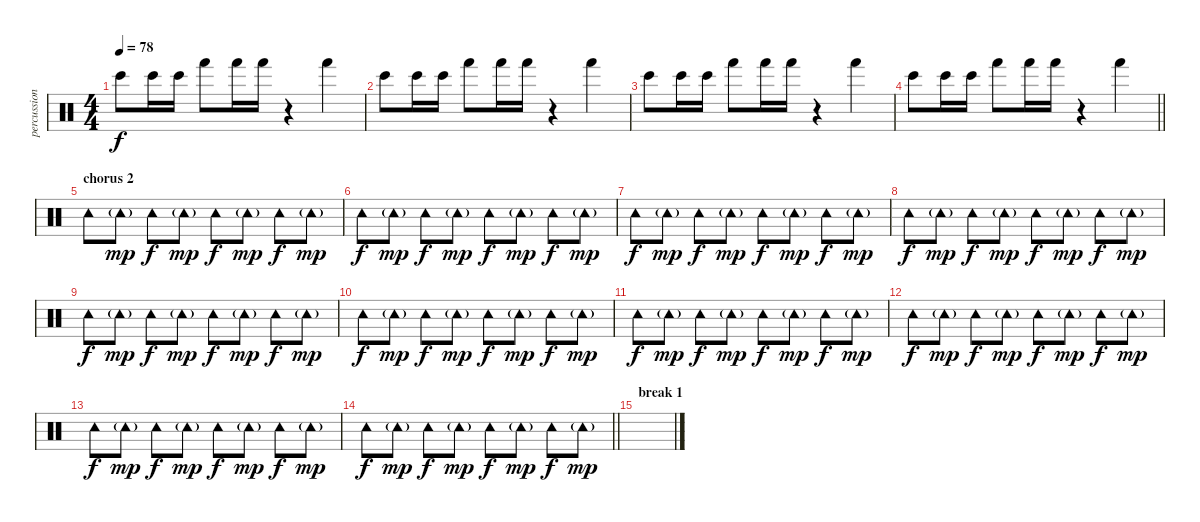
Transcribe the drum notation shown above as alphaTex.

\track ("percussion" "percussion") {instrument percussion}
\staff {score}
\articulation defaults
\ts (4 4)
\tempo 78
\clef neutral
\ks c "Bongo High (hit)".8{dy f} "Bongo High (hit)".16 "Bongo High (hit)".16 "Hand (hit)".8 "Hand (hit)".16 "Hand (hit)".16
r.4 "Hand (hit)".4 |
"Bongo High (hit)".8 "Bongo High (hit)".16 "Bongo High (hit)".16 "Hand (hit)".8 "Hand (hit)".16 "Hand (hit)".16 r.4 "Hand (hit)".4 |
"Bongo High (hit)".8 "Bongo High (hit)".16 "Bongo High (hit)".16 "Hand (hit)".8 "Hand (hit)".16 "Hand (hit)".16 r.4 "Hand (hit)".4 |
\barLineRight lightlight "Bongo High (hit)".8 "Bongo High (hit)".16 "Bongo High (hit)".16 "Hand (hit)".8 "Hand (hit)".16 "Hand (hit)".16
r.4 "Hand (hit)".4 |
\section ("" "chorus 2")
"Tambourine (hit)".8 "Tambourine (hit)"{g}.8{dy mp} "Tambourine (hit)".8{dy f} "Tambourine (hit)"{g}.8{dy mp} "Tambourine (hit)".8{dy f} "Tambourine (hit)"{g}.8{dy mp} "Tambourine (hit)".8{dy f} "Tambourine (hit)"{g}.8{dy mp} |
"Tambourine (hit)".8{dy f} "Tambourine (hit)"{g}.8{dy mp} "Tambourine (hit)".8{dy f} "Tambourine (hit)"{g}.8{dy mp} "Tambourine (hit)".8{dy f} "Tambourine (hit)"{g}.8{dy mp} "Tambourine (hit)".8{dy f} "Tambourine (hit)"{g}.8{dy mp} |
"Tambourine (hit)".8{dy f} "Tambourine (hit)"{g}.8{dy mp} "Tambourine (hit)".8{dy f} "Tambourine (hit)"{g}.8{dy mp} "Tambourine (hit)".8{dy f} "Tambourine (hit)"{g}.8{dy mp} "Tambourine (hit)".8{dy f} "Tambourine (hit)"{g}.8{dy mp} |
"Tambourine (hit)".8{dy f} "Tambourine (hit)"{g}.8{dy mp} "Tambourine (hit)".8{dy f} "Tambourine (hit)"{g}.8{dy mp} "Tambourine (hit)".8{dy f} "Tambourine (hit)"{g}.8{dy mp} "Tambourine (hit)".8{dy f} "Tambourine (hit)"{g}.8{dy mp} |
"Tambourine (hit)".8{dy f} "Tambourine (hit)"{g}.8{dy mp} "Tambourine (hit)".8{dy f} "Tambourine (hit)"{g}.8{dy mp} "Tambourine (hit)".8{dy f} "Tambourine (hit)"{g}.8{dy mp} "Tambourine (hit)".8{dy f} "Tambourine (hit)"{g}.8{dy mp} |
"Tambourine (hit)".8{dy f} "Tambourine (hit)"{g}.8{dy mp} "Tambourine (hit)".8{dy f} "Tambourine (hit)"{g}.8{dy mp} "Tambourine (hit)".8{dy f} "Tambourine (hit)"{g}.8{dy mp} "Tambourine (hit)".8{dy f} "Tambourine (hit)"{g}.8{dy mp} |
"Tambourine (hit)".8{dy f} "Tambourine (hit)"{g}.8{dy mp} "Tambourine (hit)".8{dy f} "Tambourine (hit)"{g}.8{dy mp} "Tambourine (hit)".8{dy f} "Tambourine (hit)"{g}.8{dy mp} "Tambourine (hit)".8{dy f} "Tambourine (hit)"{g}.8{dy mp} |
"Tambourine (hit)".8{dy f} "Tambourine (hit)"{g}.8{dy mp} "Tambourine (hit)".8{dy f} "Tambourine (hit)"{g}.8{dy mp} "Tambourine (hit)".8{dy f} "Tambourine (hit)"{g}.8{dy mp} "Tambourine (hit)".8{dy f} "Tambourine (hit)"{g}.8{dy mp} |
"Tambourine (hit)".8{dy f} "Tambourine (hit)"{g}.8{dy mp} "Tambourine (hit)".8{dy f} "Tambourine (hit)"{g}.8{dy mp} "Tambourine (hit)".8{dy f} "Tambourine (hit)"{g}.8{dy mp} "Tambourine (hit)".8{dy f} "Tambourine (hit)"{g}.8{dy mp} |
\barLineRight lightlight "Tambourine (hit)".8{dy f} "Tambourine (hit)"{g}.8{dy mp} "Tambourine (hit)".8{dy f} "Tambourine (hit)"{g}.8{dy mp} "Tambourine (hit)".8{dy f} "Tambourine (hit)"{g}.8{dy mp} "Tambourine (hit)".8{dy f} "Tambourine (hit)"{g}.8{dy mp}
|
\section ("" "break 1")
